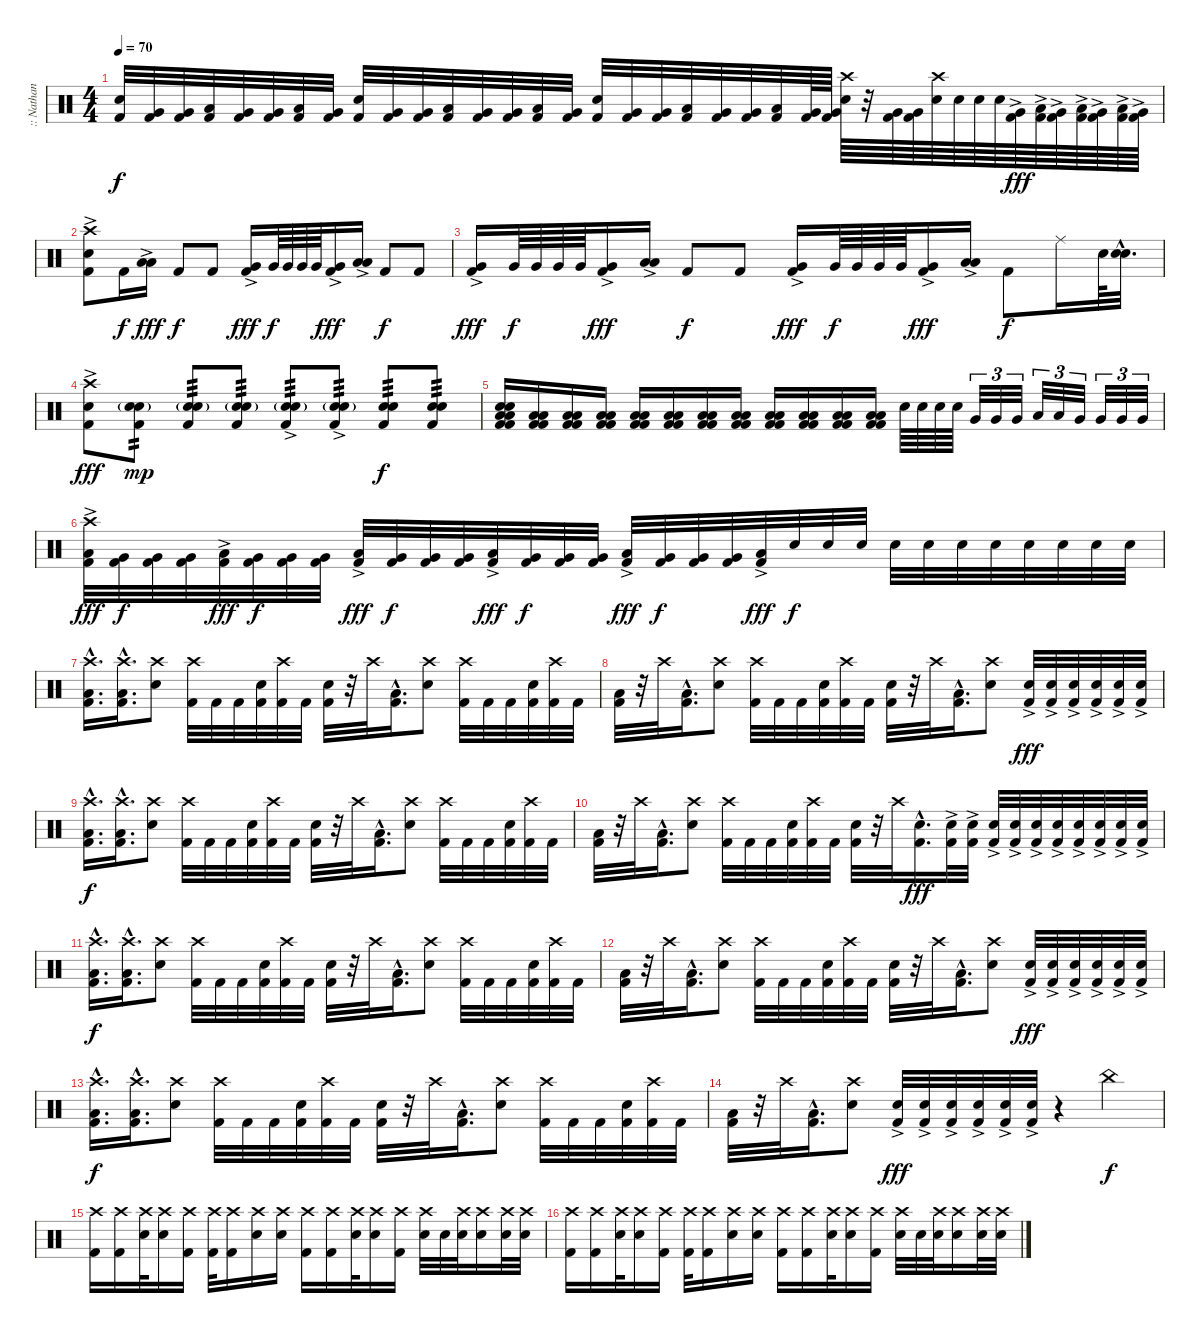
\track (":: Nathan Jonas Jordison #1 ::" ":: Nathan ") {instrument percussion}
\staff {score}
\articulation defaults
\ts (4 4)
\tempo 70
\clef neutral
\ks c
("Electric Snare (hit)" "Kick (hit) 2").32{dy f} ("Kick (hit) 2" "Very Low Tom (hit)").32 ("Kick (hit) 2" "Very Low Tom (hit)").32 ("Kick (hit) 2" "Low Tom (hit)").32 ("Kick (hit) 2" "Very Low Tom (hit)").32 ("Kick (hit) 2" "Very Low Tom (hit)").32 ("Kick (hit) 2" "Low Tom (hit)").32 ("Kick (hit) 2" "Very Low Tom (hit)").32 ("Electric Snare (hit)" "Kick (hit) 2").32 ("Kick (hit) 2" "Very Low Tom (hit)").32 ("Kick (hit) 2" "Very Low Tom (hit)").32 ("Kick (hit) 2" "Low Tom (hit)").32 ("Kick (hit) 2" "Very Low Tom (hit)").32 ("Kick (hit) 2" "Very Low Tom (hit)").32 ("Kick (hit) 2" "Low Tom (hit)").32 ("Kick (hit) 2" "Very Low Tom (hit)").32 ("Electric Snare (hit)" "Kick (hit) 2").32 ("Kick (hit) 2" "Very Low Tom (hit)").32 ("Kick (hit) 2" "Very Low Tom (hit)").32 ("Kick (hit) 2" "Low Tom (hit)").32 ("Kick (hit) 2" "Very Low Tom (hit)").32 ("Kick (hit) 2" "Very Low Tom (hit)").32 ("Kick (hit) 2" "Low Tom (hit)").32 ("Kick (hit) 2" "Very Low Tom (hit)").64 ("Kick (hit) 2" "Very Low Tom (hit)").64 ("Crash high (hit)" "Electric Snare (hit)").64 r.32 ("Kick (hit) 2" "Very Low Tom (hit)").64 ("Kick (hit) 2" "Very Low Tom (hit)").64 ("Crash high (hit)" "Electric Snare (hit)").64 "Electric Snare (hit)".64 "Electric Snare (hit)".64 "Electric Snare (hit)".64 ("Very Low Tom (hit)"{ac} "Kick (hit) 2").64{dy fff} ("Low Tom (hit)"{ac} "Kick (hit) 2").64 ("Very Low Tom (hit)"{ac} "Kick (hit) 2").64 ("Low Tom (hit)"{ac} "Kick (hit) 2").64 ("Very Low Tom (hit)"{ac} "Kick (hit) 2").64 ("Low Tom (hit)"{ac} "Kick (hit) 2").64 ("Very Low Tom (hit)"{ac} "Kick (hit) 2").64 |
("Crash high (hit)" "Kick (hit) 2" "Electric Snare (hit)"{ac}).8{volume 16} "Kick (hit) 2".16{dy f} ("Low Floor Tom (hit)"{ac} "Low Floor Tom (hit)"{ac}).16{dy fff} "Kick (hit) 2".8{dy f} "Kick (hit) 2".8 ("Kick (hit) 2" "Very Low Tom (hit)"{ac}).16{dy fff} "Very Low Tom (hit)".64{dy f} "Very Low Tom (hit)".64 "Very Low Tom (hit)".64 "Very Low Tom (hit)".64 ("Kick (hit) 2" "Very Low Tom (hit)"{ac}).16{dy fff} ("Low Floor Tom (hit)"{ac} "Low Floor Tom (hit)"{ac}).16 "Kick (hit) 2".8{dy f} "Kick (hit) 2".8 |
("Kick (hit) 2" "Very Low Tom (hit)"{ac}).16{dy fff volume 16} "Very Low Tom (hit)".64{dy f} "Very Low Tom (hit)".64 "Very Low Tom (hit)".64 "Very Low Tom (hit)".64 ("Kick (hit) 2" "Very Low Tom (hit)"{ac}).16{dy fff} ("Low Floor Tom (hit)"{ac} "Low Floor Tom (hit)"{ac}).16 "Kick (hit) 2".8{dy f} "Kick (hit) 2".8 ("Kick (hit) 2" "Very Low Tom (hit)"{ac}).16{dy fff} "Very Low Tom (hit)".64{dy f} "Very Low Tom (hit)".64 "Very Low Tom (hit)".64 "Very Low Tom (hit)".64 ("Kick (hit) 2" "Very Low Tom (hit)"{ac}).16{dy fff} ("Low Floor Tom (hit)"{ac} "Low Floor Tom (hit)"{ac}).16 "Kick (hit) 2".8{dy f} "Ride (middle)".16 "Electric Snare (hit)".64 ("Electric Snare (hit)"{hac} "Snare (hit) 2"{hac}).32{d} |
("Crash high (hit)" "Kick (hit) 2" "Electric Snare (hit)"{ac}).8{dy fff volume 16} ("Kick (hit) 2" "Electric Snare (hit)" "Electric Snare (hit)"{g}).8{tp 2 dy mp} ("Kick (hit) 2" "Electric Snare (hit)" "Electric Snare (hit)"{g}).8{tp 3} ("Kick (hit) 2" "Electric Snare (hit)" "Electric Snare (hit)"{g}).8{tp 3} ("Kick (hit) 2" "Electric Snare (hit)" "Electric Snare (hit)"{g ac}).8{tp 3} ("Kick (hit) 2" "Electric Snare (hit)" "Electric Snare (hit)"{g ac}).8{tp 3} ("Kick (hit) 2" "Electric Snare (hit)" "Electric Snare (hit)").8{tp 3 dy f} ("Kick (hit) 2" "Electric Snare (hit)" "Electric Snare (hit)").8{tp 3} |
("Kick (hit) 2" "Kick (hit) 2" "Low Floor Tom (hit)" "Low Floor Tom (hit)" "Electric Snare (hit)" "Electric Snare (hit)").16{volume 16} ("Kick (hit) 2" "Kick (hit) 2" "Low Floor Tom (hit)" "Low Floor Tom (hit)").16 ("Kick (hit) 2" "Kick (hit) 2" "Low Floor Tom (hit)" "Low Floor Tom (hit)").16 ("Kick (hit) 2" "Kick (hit) 2" "Low Floor Tom (hit)" "Low Floor Tom (hit)").16 ("Kick (hit) 2" "Kick (hit) 2" "Low Floor Tom (hit)" "Low Floor Tom (hit)").16 ("Kick (hit) 2" "Kick (hit) 2" "Low Floor Tom (hit)" "Low Floor Tom (hit)").16 ("Kick (hit) 2" "Kick (hit) 2" "Low Floor Tom (hit)" "Low Floor Tom (hit)").16 ("Kick (hit) 2" "Kick (hit) 2" "Low Floor Tom (hit)" "Low Floor Tom (hit)").16 ("Kick (hit) 2" "Kick (hit) 2" "Low Floor Tom (hit)" "Low Floor Tom (hit)").16 ("Kick (hit) 2" "Kick (hit) 2" "Low Floor Tom (hit)" "Low Floor Tom (hit)").16 ("Kick (hit) 2" "Kick (hit) 2" "Low Floor Tom (hit)" "Low Floor Tom (hit)").16 ("Kick (hit) 2" "Kick (hit) 2" "Low Floor Tom (hit)" "Low Floor Tom (hit)").16 "Electric Snare (hit)".64 "Electric Snare (hit)".64 "Electric Snare (hit)".64 "Electric Snare (hit)".64 "Very Low Tom (hit)".32{tu (3 2)} "Very Low Tom (hit)".32{tu (3 2)} "Very Low Tom (hit)".32{tu (3 2)} "Low Tom (hit)".32{tu (3 2)} "Low Tom (hit)".32{tu (3 2)} "Very Low Tom (hit)".32{tu (3 2)} "Very Low Tom (hit)".32{tu (3 2)} "Very Low Tom (hit)".32{tu (3 2)} "Very Low Tom (hit)".32{tu (3 2)} |
("Crash high (hit)" "Low Tom (hit)"{ac} "Kick (hit) 2").32{dy fff} ("Very Low Tom (hit)" "Kick (hit) 2").32{dy f} ("Very Low Tom (hit)" "Kick (hit) 2").32 ("Very Low Tom (hit)" "Kick (hit) 2").32 ("Low Tom (hit)"{ac} "Kick (hit) 2").32{dy fff} ("Very Low Tom (hit)" "Kick (hit) 2").32{dy f} ("Very Low Tom (hit)" "Kick (hit) 2").32 ("Very Low Tom (hit)" "Kick (hit) 2").32 ("Low Tom (hit)"{ac} "Kick (hit) 2").32{dy fff} ("Very Low Tom (hit)" "Kick (hit) 2").32{dy f} ("Very Low Tom (hit)" "Kick (hit) 2").32 ("Very Low Tom (hit)" "Kick (hit) 2").32 ("Low Tom (hit)"{ac} "Kick (hit) 2").32{dy fff} ("Very Low Tom (hit)" "Kick (hit) 2").32{dy f} ("Very Low Tom (hit)" "Kick (hit) 2").32 ("Very Low Tom (hit)" "Kick (hit) 2").32 ("Low Tom (hit)"{ac} "Kick (hit) 2").32{dy fff} ("Very Low Tom (hit)" "Kick (hit) 2").32{dy f} ("Very Low Tom (hit)" "Kick (hit) 2").32 ("Very Low Tom (hit)" "Kick (hit) 2").32 ("Low Tom (hit)"{ac} "Kick (hit) 2").32{dy fff} "Electric Snare (hit)".32{dy f} "Electric Snare (hit)".32 "Electric Snare (hit)".32 "Electric Snare (hit)".32 "Electric Snare (hit)".32 "Electric Snare (hit)".32 "Electric Snare (hit)".32 "Electric Snare (hit)".32 "Electric Snare (hit)".32 "Electric Snare (hit)".32 "Electric Snare (hit)".32 |
("Crash high (hit)"{hac} "Low Floor Tom (hit)"{hac} "Kick (hit) 2"{hac}).16{d} ("Crash high (hit)"{hac} "Low Floor Tom (hit)"{hac} "Kick (hit) 2"{hac}).16{d} ("Crash high (hit)" "Electric Snare (hit)").8 ("Crash high (hit)" "Kick (hit) 2").32 "Kick (hit) 2".32 "Kick (hit) 2".32 ("Electric Snare (hit)" "Kick (hit) 2").32 ("Crash high (hit)" "Kick (hit) 2").32 "Kick (hit) 2".32 ("Electric Snare (hit)" "Kick (hit) 2").32 r.32 "Crash high (hit)".32 ("Low Floor Tom (hit)"{hac} "Kick (hit) 2"{hac}).16{d} ("Crash high (hit)" "Electric Snare (hit)").8 ("Crash high (hit)" "Kick (hit) 2").32 "Kick (hit) 2".32 "Kick (hit) 2".32 ("Electric Snare (hit)" "Kick (hit) 2").32 ("Crash high (hit)" "Kick (hit) 2").32 "Kick (hit) 2".32 |
("Low Floor Tom (hit)" "Kick (hit) 2").32 r.32 "Crash high (hit)".32 ("Low Floor Tom (hit)"{hac} "Kick (hit) 2"{hac}).16{d} ("Crash high (hit)" "Electric Snare (hit)").8 ("Crash high (hit)" "Kick (hit) 2").32 "Kick (hit) 2".32 "Kick (hit) 2".32 ("Electric Snare (hit)" "Kick (hit) 2").32 ("Crash high (hit)" "Kick (hit) 2").32 "Kick (hit) 2".32 ("Electric Snare (hit)" "Kick (hit) 2").32 r.32 "Crash high (hit)".32 ("Low Floor Tom (hit)"{hac} "Kick (hit) 2"{hac}).16{d} ("Crash high (hit)" "Electric Snare (hit)").8 ("Electric Snare (hit)"{ac} "Kick (hit) 2").32{dy fff} ("Electric Snare (hit)"{ac} "Kick (hit) 2").32 ("Electric Snare (hit)"{ac} "Kick (hit) 2").32 ("Electric Snare (hit)"{ac} "Kick (hit) 2").32 ("Electric Snare (hit)"{ac} "Kick (hit) 2").32 ("Electric Snare (hit)"{ac} "Kick (hit) 2").32 |
("Crash high (hit)"{hac} "Low Floor Tom (hit)"{hac} "Kick (hit) 2"{hac}).16{d dy f} ("Crash high (hit)"{hac} "Low Floor Tom (hit)"{hac} "Kick (hit) 2"{hac}).16{d} ("Crash high (hit)" "Electric Snare (hit)").8 ("Crash high (hit)" "Kick (hit) 2").32 "Kick (hit) 2".32 "Kick (hit) 2".32 ("Electric Snare (hit)" "Kick (hit) 2").32 ("Crash high (hit)" "Kick (hit) 2").32 "Kick (hit) 2".32 ("Electric Snare (hit)" "Kick (hit) 2").32 r.32 "Crash high (hit)".32 ("Low Floor Tom (hit)"{hac} "Kick (hit) 2"{hac}).16{d} ("Crash high (hit)" "Electric Snare (hit)").8 ("Crash high (hit)" "Kick (hit) 2").32 "Kick (hit) 2".32 "Kick (hit) 2".32 ("Electric Snare (hit)" "Kick (hit) 2").32 ("Crash high (hit)" "Kick (hit) 2").32 "Kick (hit) 2".32 |
("Low Floor Tom (hit)" "Kick (hit) 2").32 r.32 "Crash high (hit)".32 ("Low Floor Tom (hit)"{hac} "Kick (hit) 2"{hac}).16{d} ("Crash high (hit)" "Electric Snare (hit)").8 ("Crash high (hit)" "Kick (hit) 2").32 "Kick (hit) 2".32 "Kick (hit) 2".32 ("Electric Snare (hit)" "Kick (hit) 2").32 ("Crash high (hit)" "Kick (hit) 2").32 "Kick (hit) 2".32 ("Electric Snare (hit)" "Kick (hit) 2").32 r.32 "Crash high (hit)".32 ("Electric Snare (hit)"{hac} "Kick (hit) 2"{hac}).16{d dy fff} ("Electric Snare (hit)"{ac} "Kick (hit) 2").32 ("Electric Snare (hit)"{ac} "Kick (hit) 2").32 ("Electric Snare (hit)"{ac} "Kick (hit) 2").32 ("Electric Snare (hit)"{ac} "Kick (hit) 2").32 ("Electric Snare (hit)"{ac} "Kick (hit) 2").32 ("Electric Snare (hit)"{ac} "Kick (hit) 2").32 ("Electric Snare (hit)"{ac} "Kick (hit) 2").32 ("Electric Snare (hit)"{ac} "Kick (hit) 2").32 ("Electric Snare (hit)"{ac} "Kick (hit) 2").32 ("Electric Snare (hit)"{ac} "Kick (hit) 2").32 |
("Crash high (hit)"{hac} "Low Floor Tom (hit)"{hac} "Kick (hit) 2"{hac}).16{d dy f} ("Crash high (hit)"{hac} "Low Floor Tom (hit)"{hac} "Kick (hit) 2"{hac}).16{d} ("Crash high (hit)" "Electric Snare (hit)").8 ("Crash high (hit)" "Kick (hit) 2").32 "Kick (hit) 2".32 "Kick (hit) 2".32 ("Electric Snare (hit)" "Kick (hit) 2").32 ("Crash high (hit)" "Kick (hit) 2").32 "Kick (hit) 2".32 ("Electric Snare (hit)" "Kick (hit) 2").32 r.32 "Crash high (hit)".32 ("Low Floor Tom (hit)"{hac} "Kick (hit) 2"{hac}).16{d} ("Crash high (hit)" "Electric Snare (hit)").8 ("Crash high (hit)" "Kick (hit) 2").32 "Kick (hit) 2".32 "Kick (hit) 2".32 ("Electric Snare (hit)" "Kick (hit) 2").32 ("Crash high (hit)" "Kick (hit) 2").32 "Kick (hit) 2".32 |
("Low Floor Tom (hit)" "Kick (hit) 2").32 r.32 "Crash high (hit)".32 ("Low Floor Tom (hit)"{hac} "Kick (hit) 2"{hac}).16{d} ("Crash high (hit)" "Electric Snare (hit)").8 ("Crash high (hit)" "Kick (hit) 2").32 "Kick (hit) 2".32 "Kick (hit) 2".32 ("Electric Snare (hit)" "Kick (hit) 2").32 ("Crash high (hit)" "Kick (hit) 2").32 "Kick (hit) 2".32 ("Electric Snare (hit)" "Kick (hit) 2").32 r.32 "Crash high (hit)".32 ("Low Floor Tom (hit)"{hac} "Kick (hit) 2"{hac}).16{d} ("Crash high (hit)" "Electric Snare (hit)").8 ("Electric Snare (hit)"{ac} "Kick (hit) 2").32{dy fff} ("Electric Snare (hit)"{ac} "Kick (hit) 2").32 ("Electric Snare (hit)"{ac} "Kick (hit) 2").32 ("Electric Snare (hit)"{ac} "Kick (hit) 2").32 ("Electric Snare (hit)"{ac} "Kick (hit) 2").32 ("Electric Snare (hit)"{ac} "Kick (hit) 2").32 |
("Crash high (hit)"{hac} "Low Floor Tom (hit)"{hac} "Kick (hit) 2"{hac}).16{d dy f} ("Crash high (hit)"{hac} "Low Floor Tom (hit)"{hac} "Kick (hit) 2"{hac}).16{d} ("Crash high (hit)" "Electric Snare (hit)").8 ("Crash high (hit)" "Kick (hit) 2").32 "Kick (hit) 2".32 "Kick (hit) 2".32 ("Electric Snare (hit)" "Kick (hit) 2").32 ("Crash high (hit)" "Kick (hit) 2").32 "Kick (hit) 2".32 ("Electric Snare (hit)" "Kick (hit) 2").32 r.32 "Crash high (hit)".32 ("Low Floor Tom (hit)"{hac} "Kick (hit) 2"{hac}).16{d} ("Crash high (hit)" "Electric Snare (hit)").8 ("Crash high (hit)" "Kick (hit) 2").32 "Kick (hit) 2".32 "Kick (hit) 2".32 ("Electric Snare (hit)" "Kick (hit) 2").32 ("Crash high (hit)" "Kick (hit) 2").32 "Kick (hit) 2".32 |
("Low Floor Tom (hit)" "Kick (hit) 2").32 r.32 "Crash high (hit)".32 ("Low Floor Tom (hit)"{hac} "Kick (hit) 2"{hac}).16{d} ("Crash high (hit)" "Electric Snare (hit)").8 ("Electric Snare (hit)"{ac} "Kick (hit) 2").32{dy fff} ("Electric Snare (hit)"{ac} "Kick (hit) 2").32 ("Electric Snare (hit)"{ac} "Kick (hit) 2").32 ("Electric Snare (hit)"{ac} "Kick (hit) 2").32 ("Electric Snare (hit)"{ac} "Kick (hit) 2").32 ("Electric Snare (hit)"{ac} "Kick (hit) 2").32 r.4 "China (hit)".4{dy f} |
("Crash high (hit)" "Kick (hit) 2").16 ("Crash high (hit)" "Kick (hit) 2").16 ("Crash high (hit)" "Electric Snare (hit)").32 ("Crash high (hit)" "Snare (hit) 2").16 ("Crash high (hit)" "Kick (hit) 2").16 ("Crash high (hit)" "Kick (hit) 2").32 ("Crash high (hit)" "Kick (hit) 2").16 ("Crash high (hit)" "Electric Snare (hit)").16 ("Crash high (hit)" "Snare (hit) 2").16 ("Crash high (hit)" "Kick (hit) 2").16 ("Crash high (hit)" "Kick (hit) 2").16 ("Crash high (hit)" "Electric Snare (hit)").32 ("Crash high (hit)" "Snare (hit) 2").16 ("Crash high (hit)" "Kick (hit) 2").16 ("Crash high (hit)" "Electric Snare (hit)").32 "Snare (hit) 2".32 ("Crash high (hit)" "Snare (hit) 2").32 ("Crash high (hit)" "Electric Snare (hit)").16 ("Crash high (hit)" "Electric Snare (hit)").32 ("Crash high (hit)" "Electric Snare (hit)").32 |
("Crash high (hit)" "Kick (hit) 2").16 ("Crash high (hit)" "Kick (hit) 2").16 ("Crash high (hit)" "Electric Snare (hit)").32 ("Crash high (hit)" "Snare (hit) 2").16 ("Crash high (hit)" "Kick (hit) 2").16 ("Crash high (hit)" "Kick (hit) 2").32 ("Crash high (hit)" "Kick (hit) 2").16 ("Crash high (hit)" "Electric Snare (hit)").16 ("Crash high (hit)" "Snare (hit) 2").16 ("Crash high (hit)" "Kick (hit) 2").16 ("Crash high (hit)" "Kick (hit) 2").16 ("Crash high (hit)" "Electric Snare (hit)").32 ("Crash high (hit)" "Snare (hit) 2").16 ("Crash high (hit)" "Kick (hit) 2").16 ("Crash high (hit)" "Electric Snare (hit)").32 "Snare (hit) 2".32 ("Crash high (hit)" "Snare (hit) 2").32 ("Crash high (hit)" "Electric Snare (hit)").16 ("Crash high (hit)" "Electric Snare (hit)").32 ("Crash high (hit)" "Electric Snare (hit)").32
